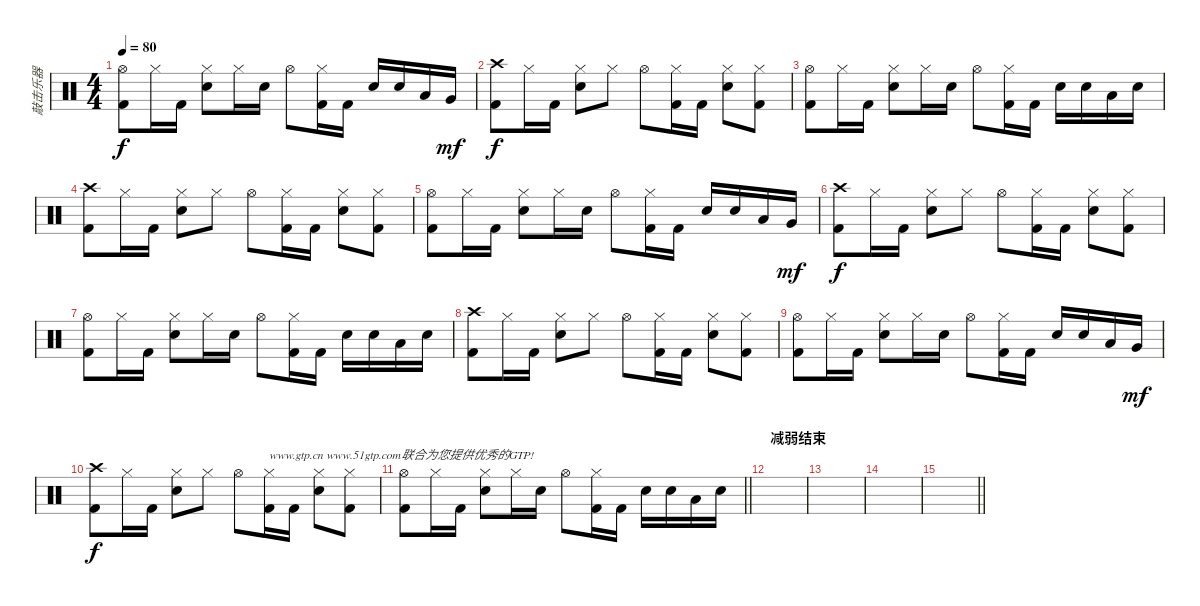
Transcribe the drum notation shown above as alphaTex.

\track ("敲击乐器" "敲击乐器") {instrument percussion}
\staff {score}
\articulation defaults
\ts (4 4)
\tempo 80
\clef neutral
\ks c
("Hi-Hat (open)" "Kick (hit) 2").8{dy f} "Hi-Hat (closed)".16 "Kick (hit) 2".16 ("Hi-Hat (closed)" "Snare (hit) 2").8 "Hi-Hat (closed)".16 "Snare (hit) 2".16 "Hi-Hat (open)".8 ("Hi-Hat (closed)" "Kick (hit) 2").16 "Kick (hit) 2".16 "Snare (hit) 2".16 "Snare (hit) 2".16 "Low Tom (hit)".16 "Very Low Tom (hit)".16{dy mf} |
("Crash high (hit)" "Kick (hit) 2").8{dy f} "Hi-Hat (closed)".16 "Kick (hit) 2".16 ("Hi-Hat (closed)" "Snare (hit) 2").8 "Hi-Hat (closed)".8 "Hi-Hat (open)".8 ("Hi-Hat (closed)" "Kick (hit) 2").16 "Kick (hit) 2".16 ("Hi-Hat (closed)" "Snare (hit) 2").8 ("Hi-Hat (closed)" "Kick (hit) 2").8 |
("Hi-Hat (open)" "Kick (hit) 2").8 "Hi-Hat (closed)".16 "Kick (hit) 2".16 ("Hi-Hat (closed)" "Snare (hit) 2").8 "Hi-Hat (closed)".16 "Snare (hit) 2".16 "Hi-Hat (open)".8 ("Hi-Hat (closed)" "Kick (hit) 2").16 "Kick (hit) 2".16 "Snare (hit) 2".16 "Snare (hit) 2".16 "Low Tom (hit)".16 "Snare (hit) 2".16 |
("Crash high (hit)" "Kick (hit) 2").8 "Hi-Hat (closed)".16 "Kick (hit) 2".16 ("Hi-Hat (closed)" "Snare (hit) 2").8 "Hi-Hat (closed)".8 "Hi-Hat (open)".8 ("Hi-Hat (closed)" "Kick (hit) 2").16 "Kick (hit) 2".16 ("Hi-Hat (closed)" "Snare (hit) 2").8 ("Hi-Hat (closed)" "Kick (hit) 2").8 |
("Hi-Hat (open)" "Kick (hit) 2").8 "Hi-Hat (closed)".16 "Kick (hit) 2".16 ("Hi-Hat (closed)" "Snare (hit) 2").8 "Hi-Hat (closed)".16 "Snare (hit) 2".16 "Hi-Hat (open)".8 ("Hi-Hat (closed)" "Kick (hit) 2").16 "Kick (hit) 2".16 "Snare (hit) 2".16 "Snare (hit) 2".16 "Low Tom (hit)".16 "Very Low Tom (hit)".16{dy mf} |
("Crash high (hit)" "Kick (hit) 2").8{dy f} "Hi-Hat (closed)".16 "Kick (hit) 2".16 ("Hi-Hat (closed)" "Snare (hit) 2").8 "Hi-Hat (closed)".8 "Hi-Hat (open)".8 ("Hi-Hat (closed)" "Kick (hit) 2").16 "Kick (hit) 2".16 ("Hi-Hat (closed)" "Snare (hit) 2").8 ("Hi-Hat (closed)" "Kick (hit) 2").8 |
("Hi-Hat (open)" "Kick (hit) 2").8 "Hi-Hat (closed)".16 "Kick (hit) 2".16 ("Hi-Hat (closed)" "Snare (hit) 2").8 "Hi-Hat (closed)".16 "Snare (hit) 2".16 "Hi-Hat (open)".8 ("Hi-Hat (closed)" "Kick (hit) 2").16 "Kick (hit) 2".16 "Snare (hit) 2".16 "Snare (hit) 2".16 "Low Tom (hit)".16 "Snare (hit) 2".16 |
("Crash high (hit)" "Kick (hit) 2").8 "Hi-Hat (closed)".16 "Kick (hit) 2".16 ("Hi-Hat (closed)" "Snare (hit) 2").8 "Hi-Hat (closed)".8 "Hi-Hat (open)".8 ("Hi-Hat (closed)" "Kick (hit) 2").16 "Kick (hit) 2".16 ("Hi-Hat (closed)" "Snare (hit) 2").8 ("Hi-Hat (closed)" "Kick (hit) 2").8 |
("Hi-Hat (open)" "Kick (hit) 2").8 "Hi-Hat (closed)".16 "Kick (hit) 2".16 ("Hi-Hat (closed)" "Snare (hit) 2").8 "Hi-Hat (closed)".16 "Snare (hit) 2".16 "Hi-Hat (open)".8 ("Hi-Hat (closed)" "Kick (hit) 2").16 "Kick (hit) 2".16 "Snare (hit) 2".16 "Snare (hit) 2".16 "Low Tom (hit)".16 "Very Low Tom (hit)".16{dy mf} |
("Crash high (hit)" "Kick (hit) 2").8{dy f} "Hi-Hat (closed)".16 "Kick (hit) 2".16 ("Hi-Hat (closed)" "Snare (hit) 2").8 "Hi-Hat (closed)".8 "Hi-Hat (open)".8 ("Hi-Hat (closed)" "Kick (hit) 2").16{txt "www.gtp.cn www.51gtp.com联合为您提供优秀的GTP!"} "Kick (hit) 2".16 ("Hi-Hat (closed)" "Snare (hit) 2").8 ("Hi-Hat (closed)" "Kick (hit) 2").8 |
\barLineRight lightlight
("Hi-Hat (open)" "Kick (hit) 2").8 "Hi-Hat (closed)".16 "Kick (hit) 2".16 ("Hi-Hat (closed)" "Snare (hit) 2").8 "Hi-Hat (closed)".16 "Snare (hit) 2".16 "Hi-Hat (open)".8 ("Hi-Hat (closed)" "Kick (hit) 2").16 "Kick (hit) 2".16 "Snare (hit) 2".16 "Snare (hit) 2".16 "Low Tom (hit)".16 "Snare (hit) 2".16 |
\section ("" "减弱结束")
|
|
|
\barLineRight lightlight
